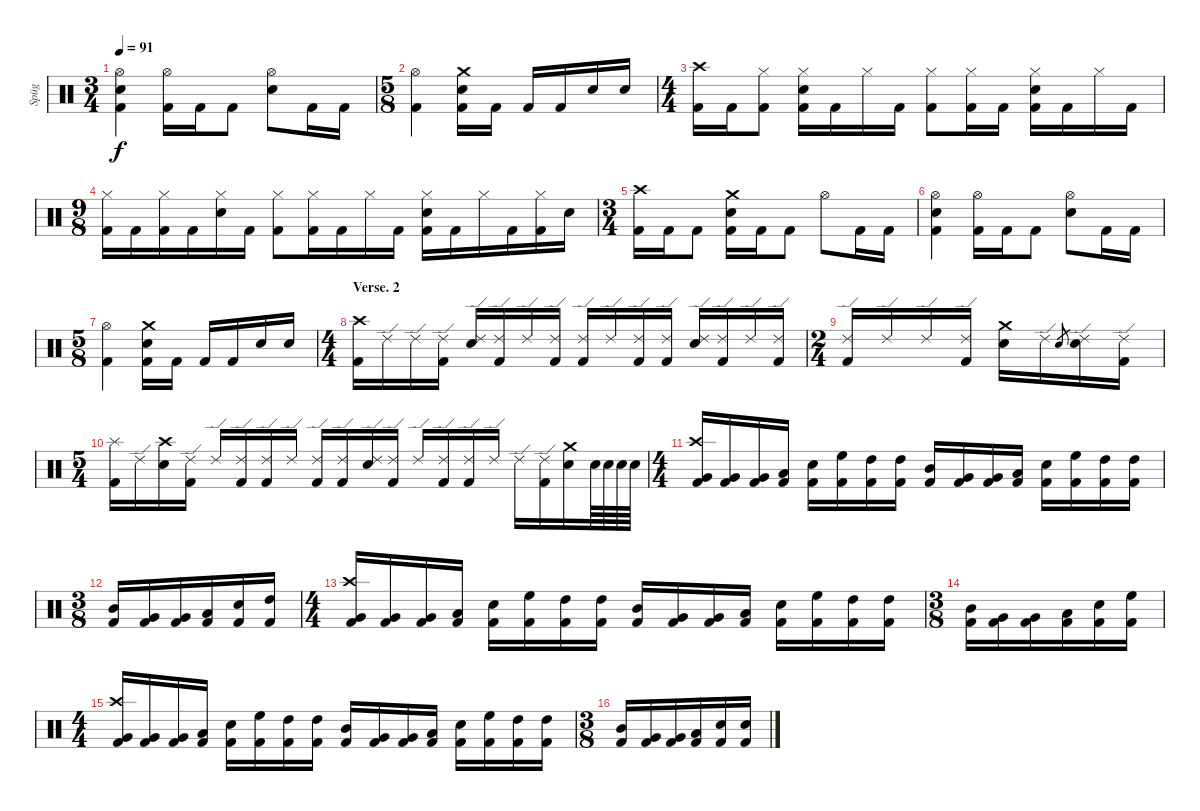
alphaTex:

\track ("Spüg" "Spüg") {instrument percussion}
\staff {score}
\articulation defaults
\ts (3 4)
\tempo 91
\clef neutral
\ks c
("Hi-Hat (open)" "Electric Snare (hit)" "Kick (hit) 2").4{dy f} ("Hi-Hat (open)" "Kick (hit) 2").16 "Kick (hit) 2".16 "Kick (hit) 2".8 ("Hi-Hat (open)" "Electric Snare (hit)").8 "Kick (hit) 2".16 "Kick (hit) 2".16 |
\ts (5 8)
("Hi-Hat (open)" "Kick (hit) 2").4 ("Crash medium (hit)" "Electric Snare (hit)" "Kick (hit) 2").16 "Kick (hit) 2".16 "Kick (hit) 2".16 "Kick (hit) 2".16 "Electric Snare (hit)".16 "Electric Snare (hit)".16 |
\ts (4 4)
("Crash high (hit)" "Kick (hit) 2").16 "Kick (hit) 2".16 ("Hi-Hat (closed)" "Kick (hit) 2").8 ("Hi-Hat (closed)" "Electric Snare (hit)" "Kick (hit) 2").16 "Kick (hit) 2".16 "Hi-Hat (closed)".16 "Kick (hit) 2".16 ("Hi-Hat (closed)" "Kick (hit) 2").8 ("Hi-Hat (closed)" "Kick (hit) 2").16 "Kick (hit) 2".16 ("Hi-Hat (closed)" "Electric Snare (hit)" "Kick (hit) 2").16 "Kick (hit) 2".16 "Hi-Hat (closed)".16 "Kick (hit) 2".16 |
\ts (9 8)
("Hi-Hat (closed)" "Kick (hit) 2").16 "Kick (hit) 2".16 ("Hi-Hat (closed)" "Kick (hit) 2").16 "Kick (hit) 2".16 ("Hi-Hat (closed)" "Electric Snare (hit)").16 "Kick (hit) 2".16 ("Hi-Hat (closed)" "Kick (hit) 2").8 ("Hi-Hat (closed)" "Kick (hit) 2").16 "Kick (hit) 2".16 "Hi-Hat (closed)".16 "Kick (hit) 2".16 ("Hi-Hat (closed)" "Electric Snare (hit)" "Kick (hit) 2").16 "Kick (hit) 2".16 "Hi-Hat (closed)".16 "Kick (hit) 2".16 ("Hi-Hat (closed)" "Kick (hit) 2").16 "Electric Snare (hit)".16 |
\ts (3 4)
("Crash high (hit)" "Kick (hit) 2").16 "Kick (hit) 2".16 "Kick (hit) 2".8 ("Crash medium (hit)" "Electric Snare (hit)" "Kick (hit) 2").16 "Kick (hit) 2".16 "Kick (hit) 2".8 "Hi-Hat (open)".8 "Kick (hit) 2".16 "Kick (hit) 2".16 |
("Hi-Hat (open)" "Electric Snare (hit)" "Kick (hit) 2").4 ("Hi-Hat (open)" "Kick (hit) 2").16 "Kick (hit) 2".16 "Kick (hit) 2".8 ("Hi-Hat (open)" "Electric Snare (hit)").8 "Kick (hit) 2".16 "Kick (hit) 2".16 |
\ts (5 8)
("Hi-Hat (open)" "Kick (hit) 2").4 ("Crash medium (hit)" "Electric Snare (hit)" "Kick (hit) 2").16 "Kick (hit) 2".16 "Kick (hit) 2".16 "Kick (hit) 2".16 "Electric Snare (hit)".16 "Electric Snare (hit)".16 |
\ts (4 4)
\section ("" "Verse. 2")
("Crash high (hit)" "Kick (hit) 2").16 "Ride (edge) 2".16 "Ride (edge) 2".16 ("Ride (edge) 2" "Kick (hit) 2").16 ("Ride (edge) 2" "Electric Snare (hit)").16 ("Ride (edge) 2" "Kick (hit) 2").16 "Ride (edge) 2".16 ("Ride (edge) 2" "Kick (hit) 2").16 ("Ride (edge) 2" "Kick (hit) 2").16 "Ride (edge) 2".16 ("Ride (edge) 2" "Kick (hit) 2").16 ("Ride (edge) 2" "Kick (hit) 2").16 ("Ride (edge) 2" "Electric Snare (hit)").16 ("Ride (edge) 2" "Kick (hit) 2").16 "Ride (edge) 2".16 ("Ride (edge) 2" "Kick (hit) 2").16 |
\ts (2 4)
("Ride (edge) 2" "Kick (hit) 2").16 "Ride (edge) 2".16 "Ride (edge) 2".16 ("Ride (edge) 2" "Kick (hit) 2").16 ("Crash medium (hit)" "Electric Snare (hit)").16 "Ride (edge) 2".16 "Electric Snare (hit)".8{gr} ("Ride (edge) 2" "Electric Snare (hit)").16 ("Ride (edge) 2" "Kick (hit) 2").16 |
\ts (5 4)
("Splash (hit)" "Kick (hit) 2").16 "Ride (edge) 2".16 ("Crash high (hit)" "Electric Snare (hit)").16 ("Ride (edge) 2" "Kick (hit) 2").16 "Ride (edge) 2".16 ("Ride (edge) 2" "Kick (hit) 2").16 ("Ride (edge) 2" "Kick (hit) 2").16 "Ride (edge) 2".16 ("Ride (edge) 2" "Kick (hit) 2").16 ("Ride (edge) 2" "Kick (hit) 2").16 ("Ride (edge) 2" "Electric Snare (hit)").16 ("Ride (edge) 2" "Kick (hit) 2").16 "Ride (edge) 2".16 ("Ride (edge) 2" "Kick (hit) 2").16 ("Ride (edge) 2" "Kick (hit) 2").16 "Ride (edge) 2".16 "Ride (edge) 2".16 ("Ride (edge) 2" "Kick (hit) 2").16 ("Crash medium (hit)" "Electric Snare (hit)").16 "Electric Snare (hit)".64 "Electric Snare (hit)".64 "Electric Snare (hit)".64 "Electric Snare (hit)".64 |
\ts (4 4)
("Crash high (hit)" "Very Low Tom (hit)" "Kick (hit) 2").16 ("Very Low Tom (hit)" "Kick (hit) 2").16 ("Very Low Tom (hit)" "Kick (hit) 2").16 ("Low Tom (hit)" "Kick (hit) 2").16 ("Electric Snare (hit)" "Kick (hit) 2").16 ("High Floor Tom (hit)" "Kick (hit) 2").16 ("High Tom (hit)" "Kick (hit) 2").16 ("High Tom (hit)" "Kick (hit) 2").16 ("Mid Tom (hit)" "Kick (hit) 2").16 ("Very Low Tom (hit)" "Kick (hit) 2").16 ("Very Low Tom (hit)" "Kick (hit) 2").16 ("Low Tom (hit)" "Kick (hit) 2").16 ("Electric Snare (hit)" "Kick (hit) 2").16 ("High Floor Tom (hit)" "Kick (hit) 2").16 ("High Tom (hit)" "Kick (hit) 2").16 ("High Tom (hit)" "Kick (hit) 2").16 |
\ts (3 8)
("Mid Tom (hit)" "Kick (hit) 2").16 ("Very Low Tom (hit)" "Kick (hit) 2").16 ("Very Low Tom (hit)" "Kick (hit) 2").16 ("Low Tom (hit)" "Kick (hit) 2").16 ("Electric Snare (hit)" "Kick (hit) 2").16 ("High Tom (hit)" "Kick (hit) 2").16 |
\ts (4 4)
("Crash high (hit)" "Very Low Tom (hit)" "Kick (hit) 2").16 ("Very Low Tom (hit)" "Kick (hit) 2").16 ("Very Low Tom (hit)" "Kick (hit) 2").16 ("Low Tom (hit)" "Kick (hit) 2").16 ("Electric Snare (hit)" "Kick (hit) 2").16 ("High Floor Tom (hit)" "Kick (hit) 2").16 ("High Tom (hit)" "Kick (hit) 2").16 ("High Tom (hit)" "Kick (hit) 2").16 ("Mid Tom (hit)" "Kick (hit) 2").16 ("Very Low Tom (hit)" "Kick (hit) 2").16 ("Very Low Tom (hit)" "Kick (hit) 2").16 ("Low Tom (hit)" "Kick (hit) 2").16 ("Electric Snare (hit)" "Kick (hit) 2").16 ("High Floor Tom (hit)" "Kick (hit) 2").16 ("High Tom (hit)" "Kick (hit) 2").16 ("High Tom (hit)" "Kick (hit) 2").16 |
\ts (3 8)
("Mid Tom (hit)" "Kick (hit) 2").16 ("Very Low Tom (hit)" "Kick (hit) 2").16 ("Very Low Tom (hit)" "Kick (hit) 2").16 ("Low Tom (hit)" "Kick (hit) 2").16 ("Electric Snare (hit)" "Kick (hit) 2").16 ("High Floor Tom (hit)" "Kick (hit) 2").16 |
\ts (4 4)
("Crash high (hit)" "Very Low Tom (hit)" "Kick (hit) 2").16 ("Very Low Tom (hit)" "Kick (hit) 2").16 ("Very Low Tom (hit)" "Kick (hit) 2").16 ("Low Tom (hit)" "Kick (hit) 2").16 ("Electric Snare (hit)" "Kick (hit) 2").16 ("High Floor Tom (hit)" "Kick (hit) 2").16 ("High Tom (hit)" "Kick (hit) 2").16 ("High Tom (hit)" "Kick (hit) 2").16 ("Mid Tom (hit)" "Kick (hit) 2").16 ("Very Low Tom (hit)" "Kick (hit) 2").16 ("Very Low Tom (hit)" "Kick (hit) 2").16 ("Low Tom (hit)" "Kick (hit) 2").16 ("Electric Snare (hit)" "Kick (hit) 2").16 ("High Floor Tom (hit)" "Kick (hit) 2").16 ("High Tom (hit)" "Kick (hit) 2").16 ("High Tom (hit)" "Kick (hit) 2").16 |
\ts (3 8)
("Mid Tom (hit)" "Kick (hit) 2").16 ("Very Low Tom (hit)" "Kick (hit) 2").16 ("Very Low Tom (hit)" "Kick (hit) 2").16 ("Low Tom (hit)" "Kick (hit) 2").16 ("Electric Snare (hit)" "Kick (hit) 2").16 ("Electric Snare (hit)" "Kick (hit) 2").16
